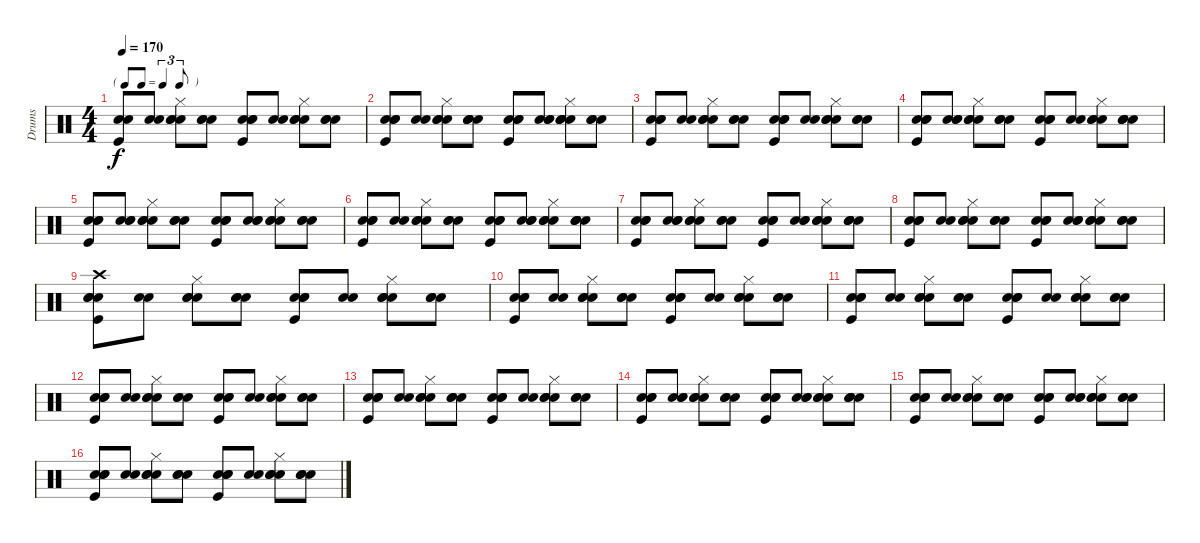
\track ("Drums" "Drums") {instrument percussion}
\staff {score}
\articulation defaults
\ts (4 4)
\tf triplet8th
\tempo 170
\clef neutral
\ks c
("Kick (hit)" "Snare (hit) 2" "Electric Snare (hit)").8{dy f} ("Snare (hit)" "Electric Snare (hit)").8 ("Snare (hit)" "Snare (hit) 2" "Hi-Hat (closed)" "Electric Snare (hit)").8 ("Snare (hit)" "Snare (hit) 2" "Electric Snare (hit)").8 ("Snare (hit)" "Kick (hit)" "Snare (hit) 2" "Electric Snare (hit)").8 ("Snare (hit)" "Electric Snare (hit)").8 ("Snare (hit)" "Snare (hit) 2" "Hi-Hat (closed)" "Electric Snare (hit)").8 ("Snare (hit)" "Snare (hit) 2" "Electric Snare (hit)").8 |
("Snare (hit)" "Kick (hit)" "Snare (hit) 2" "Electric Snare (hit)").8 ("Snare (hit)" "Electric Snare (hit)").8 ("Snare (hit)" "Snare (hit) 2" "Hi-Hat (closed)" "Electric Snare (hit)").8 ("Snare (hit)" "Snare (hit) 2" "Electric Snare (hit)" "Hand Clap (hit)").8 ("Snare (hit)" "Kick (hit)" "Snare (hit) 2" "Electric Snare (hit)").8 ("Snare (hit)" "Electric Snare (hit)" "Hand Clap (hit)").8 ("Snare (hit)" "Snare (hit) 2" "Hi-Hat (closed)" "Electric Snare (hit)" "Hand Clap (hit)").8 ("Snare (hit)" "Snare (hit) 2" "Electric Snare (hit)").8 |
("Snare (hit)" "Kick (hit)" "Snare (hit) 2" "Electric Snare (hit)").8 ("Snare (hit)" "Electric Snare (hit)").8 ("Snare (hit)" "Snare (hit) 2" "Hi-Hat (closed)" "Electric Snare (hit)").8 ("Snare (hit)" "Snare (hit) 2" "Electric Snare (hit)").8 ("Snare (hit)" "Kick (hit)" "Snare (hit) 2" "Electric Snare (hit)").8 ("Snare (hit)" "Electric Snare (hit)").8 ("Snare (hit)" "Snare (hit) 2" "Hi-Hat (closed)" "Electric Snare (hit)").8 ("Snare (hit)" "Snare (hit) 2" "Electric Snare (hit)").8 |
("Snare (hit)" "Kick (hit)" "Snare (hit) 2" "Electric Snare (hit)").8 ("Snare (hit)" "Electric Snare (hit)" "Hand Clap (hit)").8 ("Snare (hit)" "Snare (hit) 2" "Hi-Hat (closed)" "Electric Snare (hit)").8 ("Snare (hit)" "Snare (hit) 2" "Electric Snare (hit)").8 ("Snare (hit)" "Kick (hit)" "Snare (hit) 2" "Electric Snare (hit)").8 ("Snare (hit)" "Electric Snare (hit)").8 ("Snare (hit)" "Snare (hit) 2" "Hi-Hat (closed)" "Electric Snare (hit)").8 ("Snare (hit)" "Snare (hit) 2" "Electric Snare (hit)" "Hand Clap (hit)").8 |
("Snare (hit)" "Kick (hit)" "Snare (hit) 2" "Electric Snare (hit)").8 ("Snare (hit)" "Electric Snare (hit)" "Hand Clap (hit)").8 ("Snare (hit)" "Snare (hit) 2" "Hi-Hat (closed)" "Electric Snare (hit)").8 ("Snare (hit)" "Snare (hit) 2" "Electric Snare (hit)").8 ("Snare (hit)" "Kick (hit)" "Snare (hit) 2" "Electric Snare (hit)").8 ("Snare (hit)" "Electric Snare (hit)" "Hand Clap (hit)").8 ("Snare (hit)" "Snare (hit) 2" "Hi-Hat (closed)" "Electric Snare (hit)").8 ("Snare (hit)" "Snare (hit) 2" "Electric Snare (hit)").8 |
("Snare (hit)" "Kick (hit)" "Snare (hit) 2" "Electric Snare (hit)").8 ("Snare (hit)" "Electric Snare (hit)").8 ("Snare (hit)" "Snare (hit) 2" "Hi-Hat (closed)" "Electric Snare (hit)").8 ("Snare (hit)" "Snare (hit) 2" "Electric Snare (hit)").8 ("Snare (hit)" "Kick (hit)" "Snare (hit) 2" "Electric Snare (hit)").8 ("Snare (hit)" "Electric Snare (hit)" "Hand Clap (hit)").8 ("Snare (hit)" "Snare (hit) 2" "Hi-Hat (closed)" "Electric Snare (hit)").8 ("Snare (hit)" "Snare (hit) 2" "Electric Snare (hit)" "Hand Clap (hit)").8 |
("Snare (hit)" "Kick (hit)" "Snare (hit) 2" "Electric Snare (hit)").8 ("Snare (hit)" "Electric Snare (hit)" "Hand Clap (hit)").8 ("Snare (hit)" "Snare (hit) 2" "Hi-Hat (closed)" "Electric Snare (hit)").8 ("Snare (hit)" "Snare (hit) 2" "Electric Snare (hit)").8 ("Snare (hit)" "Kick (hit)" "Snare (hit) 2" "Electric Snare (hit)").8 ("Snare (hit)" "Electric Snare (hit)" "Hand Clap (hit)").8 ("Snare (hit)" "Snare (hit) 2" "Hi-Hat (closed)" "Electric Snare (hit)").8 ("Snare (hit)" "Snare (hit) 2" "Electric Snare (hit)" "Hand Clap (hit)").8 |
("Snare (hit)" "Kick (hit)" "Snare (hit) 2" "Electric Snare (hit)").8 ("Snare (hit)" "Electric Snare (hit)").8 ("Snare (hit)" "Snare (hit) 2" "Hi-Hat (closed)" "Electric Snare (hit)").8 ("Snare (hit)" "Snare (hit) 2" "Electric Snare (hit)").8 ("Snare (hit)" "Kick (hit)" "Snare (hit) 2" "Electric Snare (hit)").8 ("Snare (hit)" "Snare (hit) 2" "Electric Snare (hit)").8 ("Snare (hit)" "Snare (hit) 2" "Hi-Hat (closed)" "Electric Snare (hit)").8 ("Snare (hit)" "Snare (hit) 2" "Electric Snare (hit)").8 |
("Snare (hit)" "Kick (hit)" "Snare (hit) 2" "Electric Snare (hit)" "Crash high (hit)").8 ("Snare (hit)" "Electric Snare (hit)").8 ("Snare (hit)" "Snare (hit) 2" "Hi-Hat (closed)" "Electric Snare (hit)").8 ("Snare (hit)" "Snare (hit) 2" "Electric Snare (hit)").8 ("Snare (hit)" "Kick (hit)" "Snare (hit) 2" "Electric Snare (hit)").8 ("Snare (hit)" "Electric Snare (hit)").8 ("Snare (hit)" "Snare (hit) 2" "Hi-Hat (closed)" "Electric Snare (hit)").8 ("Snare (hit)" "Snare (hit) 2" "Electric Snare (hit)").8 |
("Snare (hit)" "Kick (hit)" "Snare (hit) 2" "Electric Snare (hit)").8 ("Snare (hit)" "Electric Snare (hit)").8 ("Snare (hit)" "Snare (hit) 2" "Hi-Hat (closed)" "Electric Snare (hit)").8 ("Snare (hit)" "Snare (hit) 2" "Electric Snare (hit)").8 ("Snare (hit)" "Kick (hit)" "Snare (hit) 2" "Electric Snare (hit)").8 ("Snare (hit)" "Electric Snare (hit)").8 ("Snare (hit)" "Snare (hit) 2" "Hi-Hat (closed)" "Electric Snare (hit)").8 ("Snare (hit)" "Snare (hit) 2" "Electric Snare (hit)").8 |
("Snare (hit)" "Kick (hit)" "Snare (hit) 2" "Electric Snare (hit)").8 ("Snare (hit)" "Electric Snare (hit)").8 ("Snare (hit)" "Snare (hit) 2" "Hi-Hat (closed)" "Electric Snare (hit)").8 ("Snare (hit)" "Snare (hit) 2" "Electric Snare (hit)").8 ("Snare (hit)" "Kick (hit)" "Snare (hit) 2" "Electric Snare (hit)").8 ("Snare (hit)" "Electric Snare (hit)").8 ("Snare (hit)" "Snare (hit) 2" "Hi-Hat (closed)" "Electric Snare (hit)").8 ("Snare (hit)" "Snare (hit) 2" "Electric Snare (hit)").8 |
("Snare (hit)" "Kick (hit)" "Snare (hit) 2" "Electric Snare (hit)").8 ("Snare (hit)" "Electric Snare (hit)").8 ("Snare (hit)" "Snare (hit) 2" "Hi-Hat (closed)" "Electric Snare (hit)").8 ("Snare (hit)" "Snare (hit) 2" "Electric Snare (hit)").8 ("Snare (hit)" "Kick (hit)" "Snare (hit) 2" "Electric Snare (hit)").8 ("Snare (hit)" "Electric Snare (hit)").8 ("Snare (hit)" "Snare (hit) 2" "Hi-Hat (closed)" "Electric Snare (hit)").8 ("Snare (hit)" "Snare (hit) 2" "Electric Snare (hit)").8 |
("Snare (hit)" "Kick (hit)" "Snare (hit) 2" "Electric Snare (hit)").8 ("Snare (hit)" "Electric Snare (hit)").8 ("Snare (hit)" "Snare (hit) 2" "Hi-Hat (closed)" "Electric Snare (hit)").8 ("Snare (hit)" "Snare (hit) 2" "Electric Snare (hit)").8 ("Snare (hit)" "Kick (hit)" "Snare (hit) 2" "Electric Snare (hit)").8 ("Snare (hit)" "Electric Snare (hit)").8 ("Snare (hit)" "Snare (hit) 2" "Hi-Hat (closed)" "Electric Snare (hit)").8 ("Snare (hit)" "Snare (hit) 2" "Electric Snare (hit)").8 |
("Snare (hit)" "Kick (hit)" "Snare (hit) 2" "Electric Snare (hit)").8 ("Snare (hit)" "Electric Snare (hit)" "Hand Clap (hit)").8 ("Snare (hit)" "Snare (hit) 2" "Hi-Hat (closed)" "Electric Snare (hit)").8 ("Snare (hit)" "Snare (hit) 2" "Electric Snare (hit)").8 ("Snare (hit)" "Kick (hit)" "Snare (hit) 2" "Electric Snare (hit)").8 ("Snare (hit)" "Electric Snare (hit)" "Hand Clap (hit)").8 ("Snare (hit)" "Snare (hit) 2" "Hi-Hat (closed)" "Electric Snare (hit)").8 ("Snare (hit)" "Snare (hit) 2" "Electric Snare (hit)" "Hand Clap (hit)").8 |
("Snare (hit)" "Kick (hit)" "Snare (hit) 2" "Electric Snare (hit)").8 ("Snare (hit)" "Electric Snare (hit)").8 ("Snare (hit)" "Snare (hit) 2" "Hi-Hat (closed)" "Electric Snare (hit)").8 ("Snare (hit)" "Snare (hit) 2" "Electric Snare (hit)").8 ("Snare (hit)" "Kick (hit)" "Snare (hit) 2" "Electric Snare (hit)").8 ("Snare (hit)" "Electric Snare (hit)" "Hand Clap (hit)").8 ("Snare (hit)" "Snare (hit) 2" "Hi-Hat (closed)" "Electric Snare (hit)").8 ("Snare (hit)" "Snare (hit) 2" "Electric Snare (hit)").8 |
("Snare (hit)" "Kick (hit)" "Snare (hit) 2" "Electric Snare (hit)").8 ("Snare (hit)" "Electric Snare (hit)").8 ("Snare (hit)" "Snare (hit) 2" "Hi-Hat (closed)" "Electric Snare (hit)").8 ("Snare (hit)" "Snare (hit) 2" "Electric Snare (hit)").8 ("Snare (hit)" "Kick (hit)" "Snare (hit) 2" "Electric Snare (hit)").8 ("Snare (hit)" "Electric Snare (hit)").8 ("Snare (hit)" "Snare (hit) 2" "Hi-Hat (closed)" "Electric Snare (hit)").8 ("Snare (hit)" "Snare (hit) 2" "Electric Snare (hit)").8
